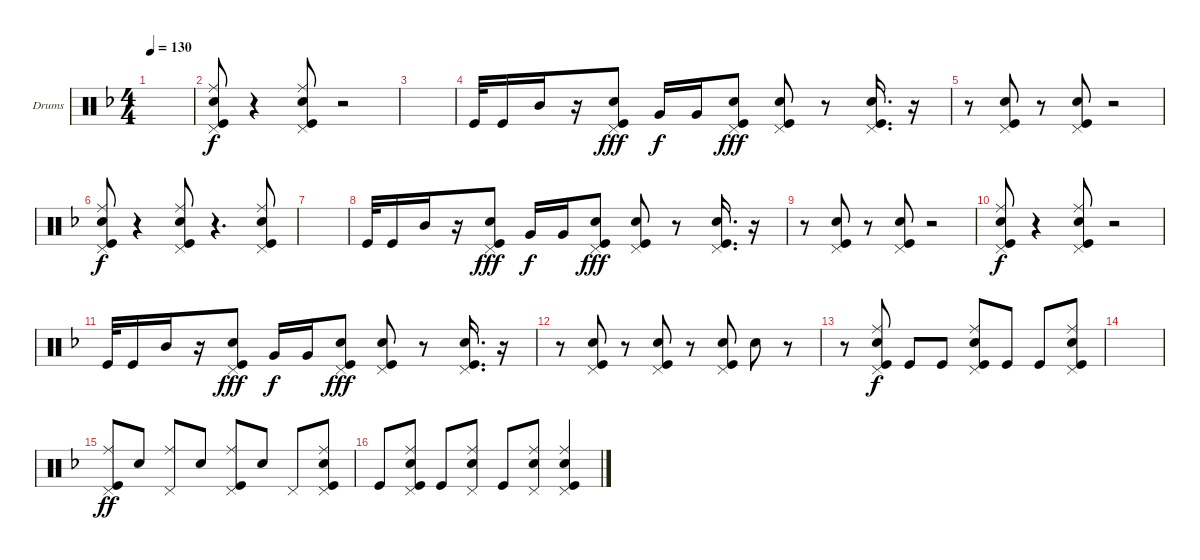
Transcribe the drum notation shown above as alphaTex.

\defaultSystemsLayout 4
\bracketExtendMode groupsimilarinstruments
\firstSystemTrackNameOrientation horizontal
\otherSystemsTrackNameOrientation horizontal
\track ("Drumkit" "Drums") {instrument percussion}
\staff {score}
\articulation defaults
\ts (4 4)
\tempo 130
\clef neutral
\ks f
|
("Pedal Hi-Hat (hit)" "Kick (hit)" "Ride (middle)" "Snare (hit) 2").8{dy f} r.4 ("Ride (middle)" "Kick (hit)" "Pedal Hi-Hat (hit)" "Snare (hit) 2").8 r.2 |
|
"Kick (hit)".32 "Kick (hit)".16 "Mid Tom (hit)".16 r.16 ("Snare (hit) 2" "Pedal Hi-Hat (hit)" "Kick (hit)").8{dy fff} "Very Low Tom (hit)".16{dy f} "Very Low Tom (hit)".16 ("Kick (hit)" "Pedal Hi-Hat (hit)" "Snare (hit) 2").8{dy fff} ("Kick (hit)" "Snare (hit) 2" "Pedal Hi-Hat (hit)").8 r.8 ("Pedal Hi-Hat (hit)" "Kick (hit)" "Snare (hit) 2").16{d} r.16 |
r.8 ("Snare (hit) 2" "Kick (hit)" "Pedal Hi-Hat (hit)").8 r.8 ("Snare (hit) 2" "Kick (hit)" "Pedal Hi-Hat (hit)").8 r.2 |
("Pedal Hi-Hat (hit)" "Kick (hit)" "Ride (middle)" "Snare (hit) 2").8{dy f} r.4 ("Ride (middle)" "Kick (hit)" "Pedal Hi-Hat (hit)" "Snare (hit) 2").8 r.4{d} ("Ride (middle)" "Snare (hit) 2" "Kick (hit)" "Pedal Hi-Hat (hit)").8 |
|
"Kick (hit)".32 "Kick (hit)".16 "Mid Tom (hit)".16 r.16 ("Snare (hit) 2" "Pedal Hi-Hat (hit)" "Kick (hit)").8{dy fff} "Very Low Tom (hit)".16{dy f} "Very Low Tom (hit)".16 ("Kick (hit)" "Pedal Hi-Hat (hit)" "Snare (hit) 2").8{dy fff} ("Kick (hit)" "Snare (hit) 2" "Pedal Hi-Hat (hit)").8 r.8 ("Pedal Hi-Hat (hit)" "Kick (hit)" "Snare (hit) 2").16{d} r.16 |
r.8 ("Snare (hit) 2" "Kick (hit)" "Pedal Hi-Hat (hit)").8 r.8 ("Snare (hit) 2" "Kick (hit)" "Pedal Hi-Hat (hit)").8 r.2 |
("Pedal Hi-Hat (hit)" "Kick (hit)" "Ride (middle)" "Snare (hit) 2").8{dy f} r.4 ("Ride (middle)" "Kick (hit)" "Pedal Hi-Hat (hit)" "Snare (hit) 2").8 r.2 |
"Kick (hit)".32 "Kick (hit)".16 "Mid Tom (hit)".16 r.16 ("Snare (hit) 2" "Pedal Hi-Hat (hit)" "Kick (hit)").8{dy fff} "Very Low Tom (hit)".16{dy f} "Very Low Tom (hit)".16 ("Kick (hit)" "Pedal Hi-Hat (hit)" "Snare (hit) 2").8{dy fff} ("Kick (hit)" "Snare (hit) 2" "Pedal Hi-Hat (hit)").8 r.8 ("Pedal Hi-Hat (hit)" "Kick (hit)" "Snare (hit) 2").16{d} r.16 |
r.8 ("Snare (hit) 2" "Kick (hit)" "Pedal Hi-Hat (hit)").8 r.8 ("Snare (hit) 2" "Kick (hit)" "Pedal Hi-Hat (hit)").8 r.8 ("Snare (hit) 2" "Kick (hit)" "Pedal Hi-Hat (hit)").8 "Snare (hit) 2".8 r.8 |
r.8 ("Pedal Hi-Hat (hit)" "Kick (hit)" "Ride (middle)" "Snare (hit) 2").8{dy f} "Kick (hit)".8 "Kick (hit)".8 ("Ride (middle)" "Kick (hit)" "Pedal Hi-Hat (hit)" "Snare (hit) 2").8 "Kick (hit)".8 "Kick (hit)".8 ("Ride (middle)" "Snare (hit) 2" "Kick (hit)" "Pedal Hi-Hat (hit)").8 |
|
("Ride (middle)" "Pedal Hi-Hat (hit)" "Kick (hit)").8{dy ff} "Snare (hit) 2".8 ("Ride (middle)" "Pedal Hi-Hat (hit)").8 "Snare (hit) 2".8 ("Pedal Hi-Hat (hit)" "Kick (hit)" "Ride (middle)").8 "Snare (hit) 2".8 "Pedal Hi-Hat (hit)".8 ("Pedal Hi-Hat (hit)" "Snare (hit) 2" "Kick (hit)" "Ride (middle)").8 |
"Kick (hit)".8 ("Ride (middle)" "Pedal Hi-Hat (hit)" "Snare (hit) 2" "Kick (hit)").8 "Kick (hit)".8 ("Ride (middle)" "Pedal Hi-Hat (hit)" "Snare (hit) 2").8 "Kick (hit)".8 ("Pedal Hi-Hat (hit)" "Snare (hit) 2" "Ride (middle)").8 ("Ride (middle)" "Snare (hit) 2" "Kick (hit)" "Pedal Hi-Hat (hit)").4
